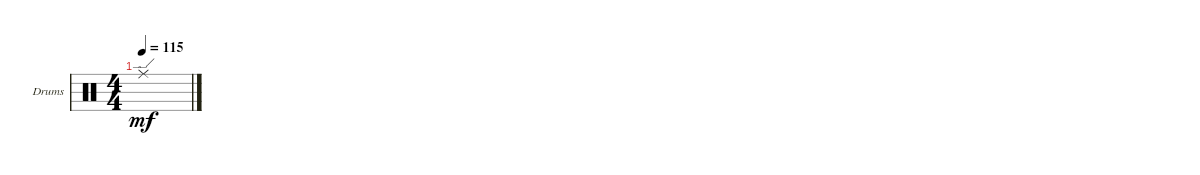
\defaultSystemsLayout 4
\bracketExtendMode groupsimilarinstruments
\firstSystemTrackNameOrientation horizontal
\otherSystemsTrackNameOrientation horizontal
\track ("Drumkit" "Drums") {instrument percussion}
\staff {score}
\articulation defaults
\ts (4 4)
\tempo 115
\clef neutral
\ks c "Ride (edge)"{t}.1{dy mf}
